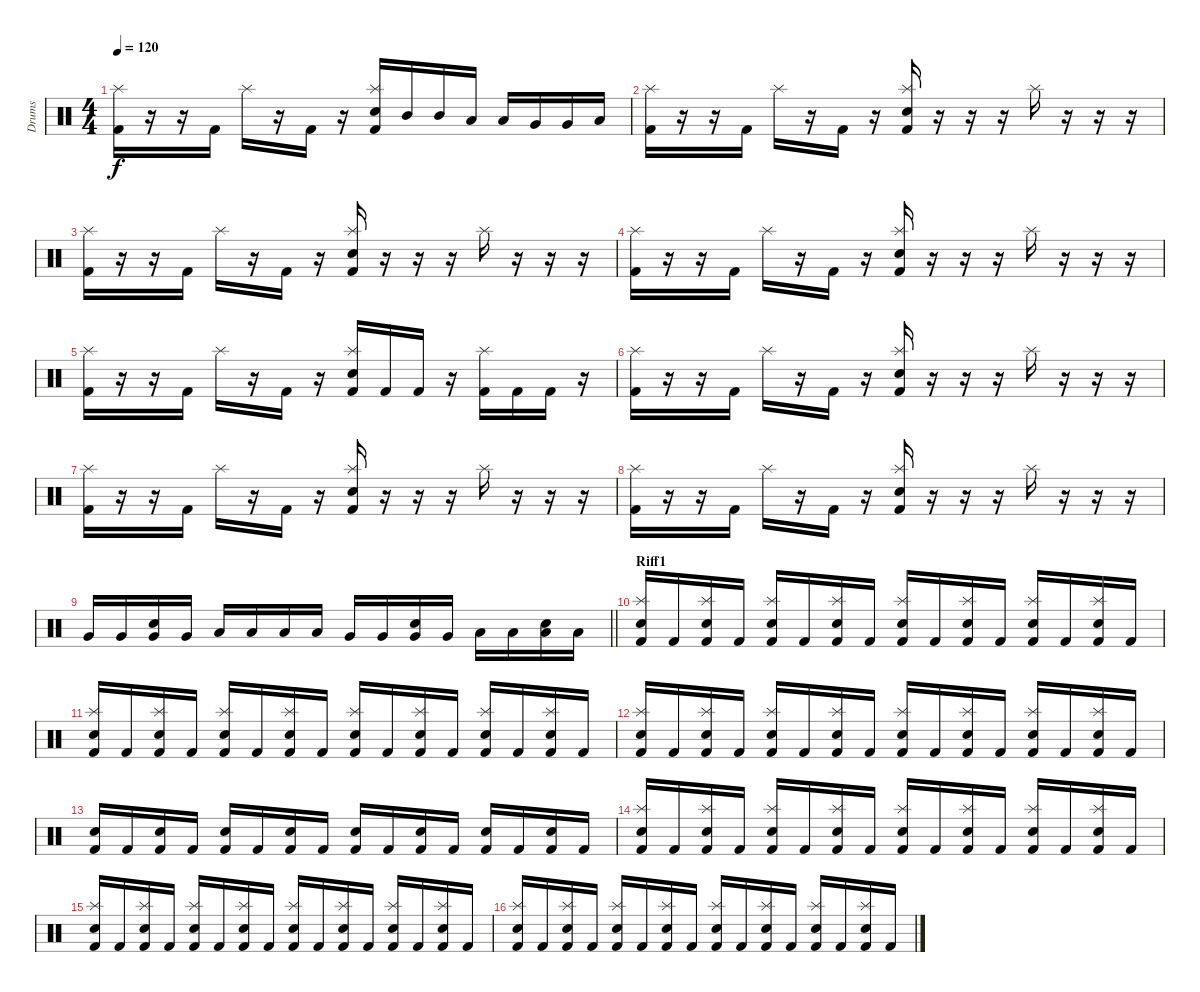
\track ("Drums" "Drums") {instrument percussion}
\staff {score}
\articulation defaults
\ts (4 4)
\tempo 120
\clef neutral
\ks c
("Kick (hit) 2" "Splash (hit)").16{dy f} r.16 r.16 "Kick (hit) 2".16 "Splash (hit)".16 r.16 "Kick (hit) 2".16 r.16 ("Kick (hit) 2" "Splash (hit)" "Snare (hit) 2").16 "Mid Tom (hit)".16 "Mid Tom (hit)".16 "Low Tom (hit)".16 "Low Tom (hit)".16 "Very Low Tom (hit)".16 "Very Low Tom (hit)".16 "Low Floor Tom (hit)".16 |
("Kick (hit) 2" "Splash (hit)").16 r.16 r.16 "Kick (hit) 2".16 "Splash (hit)".16 r.16 "Kick (hit) 2".16 r.16 ("Kick (hit) 2" "Splash (hit)" "Snare (hit) 2").16 r.16 r.16 r.16 "Splash (hit)".16 r.16 r.16 r.16 |
("Kick (hit) 2" "Splash (hit)").16 r.16 r.16 "Kick (hit) 2".16 "Splash (hit)".16 r.16 "Kick (hit) 2".16 r.16 ("Kick (hit) 2" "Splash (hit)" "Snare (hit) 2").16 r.16 r.16 r.16 "Splash (hit)".16 r.16 r.16 r.16 |
("Kick (hit) 2" "Splash (hit)").16 r.16 r.16 "Kick (hit) 2".16 "Splash (hit)".16 r.16 "Kick (hit) 2".16 r.16 ("Kick (hit) 2" "Splash (hit)" "Snare (hit) 2").16 r.16 r.16 r.16 "Splash (hit)".16 r.16 r.16 r.16 |
("Kick (hit) 2" "Splash (hit)").16 r.16 r.16 "Kick (hit) 2".16 "Splash (hit)".16 r.16 "Kick (hit) 2".16 r.16 ("Kick (hit) 2" "Splash (hit)" "Snare (hit) 2").16 "Kick (hit) 2".16 "Kick (hit) 2".16 r.16 ("Kick (hit) 2" "Splash (hit)").16 "Kick (hit) 2".16 "Kick (hit) 2".16 r.16 |
("Kick (hit) 2" "Splash (hit)").16 r.16 r.16 "Kick (hit) 2".16 "Splash (hit)".16 r.16 "Kick (hit) 2".16 r.16 ("Kick (hit) 2" "Splash (hit)" "Snare (hit) 2").16 r.16 r.16 r.16 "Splash (hit)".16 r.16 r.16 r.16 |
("Kick (hit) 2" "Splash (hit)").16 r.16 r.16 "Kick (hit) 2".16 "Splash (hit)".16 r.16 "Kick (hit) 2".16 r.16 ("Kick (hit) 2" "Splash (hit)" "Snare (hit) 2").16 r.16 r.16 r.16 "Splash (hit)".16 r.16 r.16 r.16 |
("Kick (hit) 2" "Splash (hit)").16 r.16 r.16 "Kick (hit) 2".16 "Splash (hit)".16 r.16 "Kick (hit) 2".16 r.16 ("Kick (hit) 2" "Splash (hit)" "Snare (hit) 2").16 r.16 r.16 r.16 "Splash (hit)".16 r.16 r.16 r.16 |
\barLineRight lightlight "Very Low Tom (hit)".16 "Very Low Tom (hit)".16
("Very Low Tom (hit)" "Snare (hit) 2").16 "Very Low Tom (hit)".16 "Low Floor Tom (hit)".16 "Low Floor Tom (hit)".16 "Low Floor Tom (hit)".16 "Low Floor Tom (hit)".16 "Very Low Tom (hit)".16 "Very Low Tom (hit)".16 ("Very Low Tom (hit)" "Snare (hit) 2").16 "Very Low Tom (hit)".16 "Low Floor Tom (hit)".16 "Low Floor Tom (hit)".16 ("Low Floor Tom (hit)" "Snare (hit) 2").16 "Low Floor Tom (hit)".16 |
\section ("" "Riff1")
("Kick (hit) 2" "Splash (hit)" "Snare (hit) 2").16 "Kick (hit) 2".16 ("Kick (hit) 2" "Splash (hit)" "Snare (hit) 2").16 "Kick (hit) 2".16 ("Kick (hit) 2" "Splash (hit)" "Snare (hit) 2").16 "Kick (hit) 2".16 ("Kick (hit) 2" "Splash (hit)" "Snare (hit) 2").16 "Kick (hit) 2".16 ("Kick (hit) 2" "Splash (hit)" "Snare (hit) 2").16 "Kick (hit) 2".16 ("Kick (hit) 2" "Splash (hit)" "Snare (hit) 2").16 "Kick (hit) 2".16 ("Kick (hit) 2" "Splash (hit)" "Snare (hit) 2").16 "Kick (hit) 2".16 ("Kick (hit) 2" "Splash (hit)" "Snare (hit) 2").16 "Kick (hit) 2".16 |
("Kick (hit) 2" "Splash (hit)" "Snare (hit) 2").16 "Kick (hit) 2".16 ("Kick (hit) 2" "Splash (hit)" "Snare (hit) 2").16 "Kick (hit) 2".16 ("Kick (hit) 2" "Splash (hit)" "Snare (hit) 2").16 "Kick (hit) 2".16 ("Kick (hit) 2" "Splash (hit)" "Snare (hit) 2").16 "Kick (hit) 2".16 ("Kick (hit) 2" "Splash (hit)" "Snare (hit) 2").16 "Kick (hit) 2".16 ("Kick (hit) 2" "Splash (hit)" "Snare (hit) 2").16 "Kick (hit) 2".16 ("Kick (hit) 2" "Splash (hit)" "Snare (hit) 2").16 "Kick (hit) 2".16 ("Kick (hit) 2" "Splash (hit)" "Snare (hit) 2").16 "Kick (hit) 2".16 |
("Kick (hit) 2" "Splash (hit)" "Snare (hit) 2").16 "Kick (hit) 2".16 ("Kick (hit) 2" "Splash (hit)" "Snare (hit) 2").16 "Kick (hit) 2".16 ("Kick (hit) 2" "Splash (hit)" "Snare (hit) 2").16 "Kick (hit) 2".16 ("Kick (hit) 2" "Splash (hit)" "Snare (hit) 2").16 "Kick (hit) 2".16 ("Kick (hit) 2" "Splash (hit)" "Snare (hit) 2").16 "Kick (hit) 2".16 ("Kick (hit) 2" "Splash (hit)" "Snare (hit) 2").16 "Kick (hit) 2".16 ("Kick (hit) 2" "Splash (hit)" "Snare (hit) 2").16 "Kick (hit) 2".16 ("Kick (hit) 2" "Splash (hit)" "Snare (hit) 2").16 "Kick (hit) 2".16 |
("Kick (hit) 2" "Snare (hit) 2").16 "Kick (hit) 2".16 ("Kick (hit) 2" "Snare (hit) 2").16 "Kick (hit) 2".16 ("Kick (hit) 2" "Snare (hit) 2").16 "Kick (hit) 2".16 ("Kick (hit) 2" "Snare (hit) 2").16 "Kick (hit) 2".16 ("Kick (hit) 2" "Snare (hit) 2").16 "Kick (hit) 2".16 ("Kick (hit) 2" "Snare (hit) 2").16 "Kick (hit) 2".16 ("Kick (hit) 2" "Snare (hit) 2").16 "Kick (hit) 2".16 ("Kick (hit) 2" "Snare (hit) 2").16 "Kick (hit) 2".16 |
("Kick (hit) 2" "Splash (hit)" "Snare (hit) 2").16 "Kick (hit) 2".16 ("Kick (hit) 2" "Splash (hit)" "Snare (hit) 2").16 "Kick (hit) 2".16 ("Kick (hit) 2" "Splash (hit)" "Snare (hit) 2").16 "Kick (hit) 2".16 ("Kick (hit) 2" "Splash (hit)" "Snare (hit) 2").16 "Kick (hit) 2".16 ("Kick (hit) 2" "Splash (hit)" "Snare (hit) 2").16 "Kick (hit) 2".16 ("Kick (hit) 2" "Splash (hit)" "Snare (hit) 2").16 "Kick (hit) 2".16 ("Kick (hit) 2" "Splash (hit)" "Snare (hit) 2").16 "Kick (hit) 2".16 ("Kick (hit) 2" "Splash (hit)" "Snare (hit) 2").16 "Kick (hit) 2".16 |
("Kick (hit) 2" "Splash (hit)" "Snare (hit) 2").16 "Kick (hit) 2".16 ("Kick (hit) 2" "Splash (hit)" "Snare (hit) 2").16 "Kick (hit) 2".16 ("Kick (hit) 2" "Splash (hit)" "Snare (hit) 2").16 "Kick (hit) 2".16 ("Kick (hit) 2" "Splash (hit)" "Snare (hit) 2").16 "Kick (hit) 2".16 ("Kick (hit) 2" "Splash (hit)" "Snare (hit) 2").16 "Kick (hit) 2".16 ("Kick (hit) 2" "Splash (hit)" "Snare (hit) 2").16 "Kick (hit) 2".16 ("Kick (hit) 2" "Splash (hit)" "Snare (hit) 2").16 "Kick (hit) 2".16 ("Kick (hit) 2" "Splash (hit)" "Snare (hit) 2").16 "Kick (hit) 2".16 |
("Kick (hit) 2" "Splash (hit)" "Snare (hit) 2").16 "Kick (hit) 2".16 ("Kick (hit) 2" "Splash (hit)" "Snare (hit) 2").16 "Kick (hit) 2".16 ("Kick (hit) 2" "Splash (hit)" "Snare (hit) 2").16 "Kick (hit) 2".16 ("Kick (hit) 2" "Splash (hit)" "Snare (hit) 2").16 "Kick (hit) 2".16 ("Kick (hit) 2" "Splash (hit)" "Snare (hit) 2").16 "Kick (hit) 2".16 ("Kick (hit) 2" "Splash (hit)" "Snare (hit) 2").16 "Kick (hit) 2".16 ("Kick (hit) 2" "Splash (hit)" "Snare (hit) 2").16 "Kick (hit) 2".16 ("Kick (hit) 2" "Splash (hit)" "Snare (hit) 2").16 "Kick (hit) 2".16
